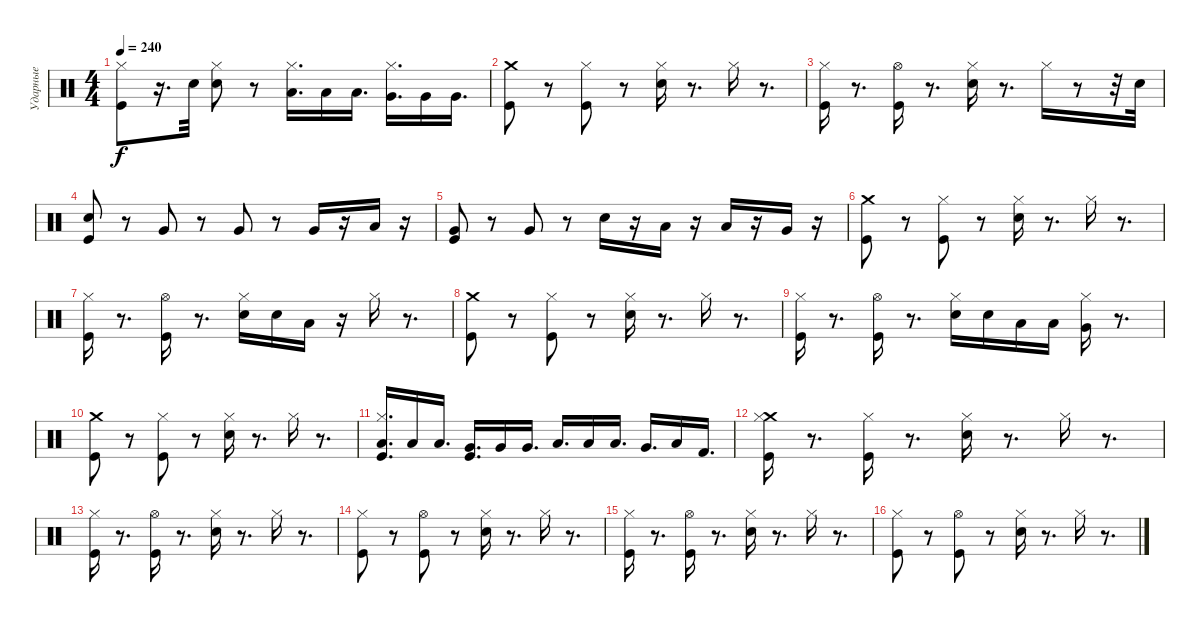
\track ("Ударные" "Ударные") {instrument percussion}
\staff {score}
\articulation defaults
\ts (4 4)
\tempo 240
\clef neutral
\ks c
("Kick (hit)" "Hi-Hat (closed)").8{dy f} r.16{d} "Snare (hit) 2".32 ("Snare (hit) 2" "Hi-Hat (closed)").8 r.8 ("Low Floor Tom (hit)" "Hi-Hat (closed)").16{d} "Low Floor Tom (hit)".16 "Low Floor Tom (hit)".16{d} ("Very Low Tom (hit)" "Hi-Hat (closed)").16{d} "Very Low Tom (hit)".16 "Very Low Tom (hit)".16{d} |
("Crash medium (hit)" "Kick (hit)").8 r.8 ("Kick (hit)" "Hi-Hat (closed)").8 r.8 ("Snare (hit) 2" "Hi-Hat (closed)").16 r.8{d} "Hi-Hat (closed)".16 r.8{d} |
("Kick (hit)" "Hi-Hat (closed)").16 r.8{d} ("Kick (hit)" "Hi-Hat (open)").16 r.8{d} ("Snare (hit) 2" "Hi-Hat (closed)").16 r.8{d} "Hi-Hat (closed)".16 r.8 r.32 "Snare (hit) 2".32 |
("Kick (hit)" "Snare (hit) 2").8 r.8 "Very Low Tom (hit)".8 r.8 "Very Low Tom (hit)".8 r.8 "Very Low Tom (hit)".16 r.16 "Low Tom (hit)".16 r.16 |
("Very Low Tom (hit)" "Kick (hit)").8 r.8 "Very Low Tom (hit)".8 r.8 "Snare (hit) 2".16 r.16 "Low Tom (hit)".16 r.16 "Low Tom (hit)".16 r.16 "Very Low Tom (hit)".16 r.16 |
("Crash medium (hit)" "Kick (hit)").8 r.8 ("Kick (hit)" "Hi-Hat (closed)").8 r.8 ("Snare (hit) 2" "Hi-Hat (closed)").16 r.8{d} "Hi-Hat (closed)".16 r.8{d} |
("Kick (hit)" "Hi-Hat (closed)").16 r.8{d} ("Kick (hit)" "Hi-Hat (open)").16 r.8{d} ("Snare (hit) 2" "Hi-Hat (closed)").16 "Snare (hit) 2".16 "Low Tom (hit)".16 r.16 "Hi-Hat (closed)".16 r.8{d} |
("Crash medium (hit)" "Kick (hit)").8 r.8 ("Kick (hit)" "Hi-Hat (closed)").8 r.8 ("Snare (hit) 2" "Hi-Hat (closed)").16 r.8{d} "Hi-Hat (closed)".16 r.8{d} |
("Kick (hit)" "Hi-Hat (closed)").16 r.8{d} ("Kick (hit)" "Hi-Hat (open)").16 r.8{d} ("Snare (hit) 2" "Hi-Hat (closed)").16 "Snare (hit) 2".16 "Low Tom (hit)".16 "Low Tom (hit)".16 ("Very Low Tom (hit)" "Hi-Hat (closed)").16 r.8{d} |
("Crash medium (hit)" "Kick (hit)").8 r.8 ("Kick (hit)" "Hi-Hat (closed)").8 r.8 ("Snare (hit) 2" "Hi-Hat (closed)").16 r.8{d} "Hi-Hat (closed)".16 r.8{d} |
("Low Floor Tom (hit)" "Kick (hit)" "Hi-Hat (closed)").16{d} "Low Floor Tom (hit)".16 "Low Floor Tom (hit)".16{d} ("Very Low Tom (hit)" "Kick (hit)").16{d} "Very Low Tom (hit)".16 "Very Low Tom (hit)".16{d} "Low Tom (hit)".16{d} "Low Tom (hit)".16 "Low Tom (hit)".16{d} "Very Low Tom (hit)".16{d} "Low Floor Tom (hit)".16 "Kick (hit) 2".16{d} |
("Kick (hit)" "Crash medium (hit)" "Hi-Hat (closed)").16 r.8{d} ("Kick (hit)" "Hi-Hat (closed)").16 r.8{d} ("Snare (hit) 2" "Hi-Hat (closed)").16 r.8{d} "Hi-Hat (closed)".16 r.8{d} |
("Kick (hit)" "Hi-Hat (closed)").16 r.8{d} ("Kick (hit)" "Hi-Hat (open)").16 r.8{d} ("Snare (hit) 2" "Hi-Hat (closed)").16 r.8{d} "Hi-Hat (closed)".16 r.8{d} |
("Hi-Hat (closed)" "Kick (hit)").8 r.8 ("Kick (hit)" "Hi-Hat (open)").8 r.8 ("Snare (hit) 2" "Hi-Hat (closed)").16 r.8{d} "Hi-Hat (closed)".16 r.8{d} |
("Kick (hit)" "Hi-Hat (closed)").16 r.8{d} ("Kick (hit)" "Hi-Hat (open)").16 r.8{d} ("Snare (hit) 2" "Hi-Hat (closed)").16 r.8{d} "Hi-Hat (closed)".16 r.8{d} |
("Hi-Hat (closed)" "Kick (hit)").8 r.8 ("Kick (hit)" "Hi-Hat (open)").8 r.8 ("Snare (hit) 2" "Hi-Hat (closed)").16 r.8{d} "Hi-Hat (closed)".16 r.8{d}
